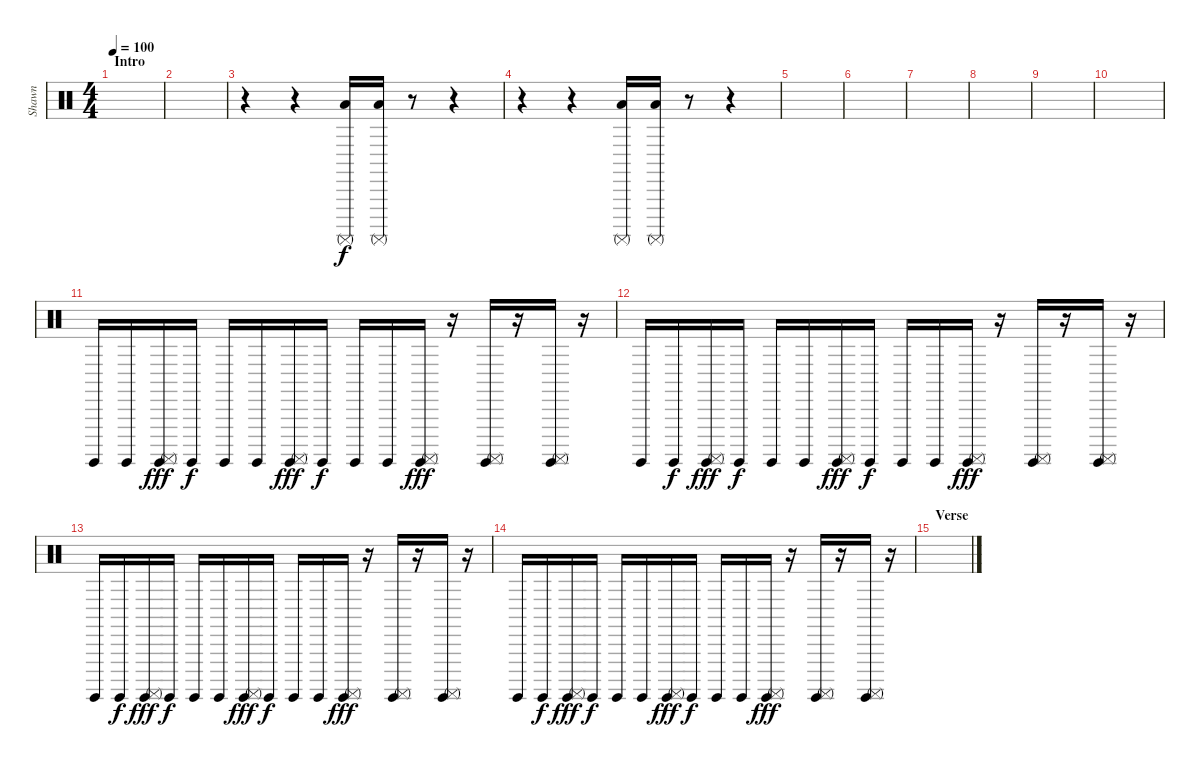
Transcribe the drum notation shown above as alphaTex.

\track ("Shawn" "Shawn") {instrument percussion}
\staff {score}
\articulation defaults
\ts (4 4)
\section ("" "Intro")
\tempo 100
\clef neutral
\ks c
|
|
r.4 r.4 ("Surdo (mute)" "Low Floor Tom (hit)").16 ("Surdo (mute)" "Low Floor Tom (hit)").16 r.8 r.4 |
r.4 r.4 ("Surdo (mute)" "Low Floor Tom (hit)").16 ("Surdo (mute)" "Low Floor Tom (hit)").16 r.8 r.4 |
|
|
|
|
|
|
"Surdo (hit)".16 "Surdo (hit)".16{dy f} ("Surdo (hit)" "Surdo (mute)").16{dy fff} "Surdo (hit)".16{dy f} "Surdo (hit)".16 "Surdo (hit)".16 ("Surdo (hit)" "Surdo (mute)").16{dy fff} "Surdo (hit)".16{dy f} "Surdo (hit)".16 "Surdo (hit)".16 ("Surdo (hit)" "Surdo (mute)").16{dy fff} r.16 ("Surdo (hit)" "Surdo (mute)").16 r.16 ("Surdo (hit)" "Surdo (mute)").16 r.16 |
"Surdo (hit)".16 "Surdo (hit)".16{dy f} ("Surdo (hit)" "Surdo (mute)").16{dy fff} "Surdo (hit)".16{dy f} "Surdo (hit)".16 "Surdo (hit)".16 ("Surdo (hit)" "Surdo (mute)").16{dy fff} "Surdo (hit)".16{dy f} "Surdo (hit)".16 "Surdo (hit)".16 ("Surdo (hit)" "Surdo (mute)").16{dy fff} r.16 ("Surdo (hit)" "Surdo (mute)").16 r.16 ("Surdo (hit)" "Surdo (mute)").16 r.16 |
"Surdo (hit)".16 "Surdo (hit)".16{dy f} ("Surdo (hit)" "Surdo (mute)").16{dy fff} "Surdo (hit)".16{dy f} "Surdo (hit)".16 "Surdo (hit)".16 ("Surdo (hit)" "Surdo (mute)").16{dy fff} "Surdo (hit)".16{dy f} "Surdo (hit)".16 "Surdo (hit)".16 ("Surdo (hit)" "Surdo (mute)").16{dy fff} r.16 ("Surdo (hit)" "Surdo (mute)").16 r.16 ("Surdo (hit)" "Surdo (mute)").16 r.16 |
"Surdo (hit)".16 "Surdo (hit)".16{dy f} ("Surdo (hit)" "Surdo (mute)").16{dy fff} "Surdo (hit)".16{dy f} "Surdo (hit)".16 "Surdo (hit)".16 ("Surdo (hit)" "Surdo (mute)").16{dy fff} "Surdo (hit)".16{dy f} "Surdo (hit)".16 "Surdo (hit)".16 ("Surdo (hit)" "Surdo (mute)").16{dy fff} r.16 ("Surdo (hit)" "Surdo (mute)").16 r.16 ("Surdo (hit)" "Surdo (mute)").16 r.16 |
\section ("" "Verse")
